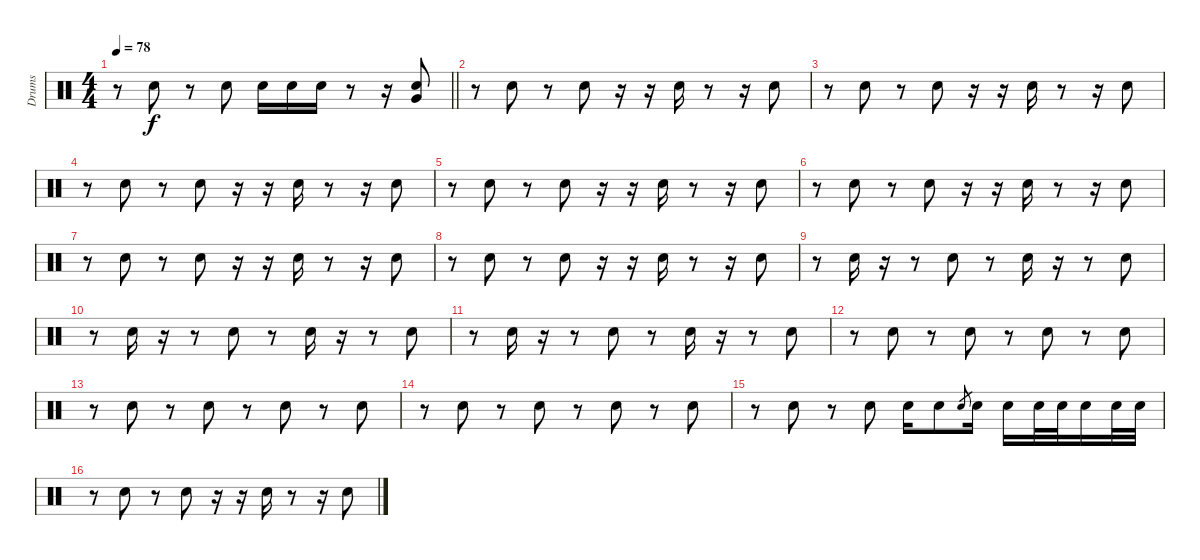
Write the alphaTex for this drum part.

\track ("Drums" "Drums") {instrument percussion}
\staff {score}
\articulation defaults
\ts (4 4)
\tempo 78
\clef neutral
\barLineRight lightlight
\ks c
r.8{dy f} "Snare (hit) 2".8 r.8 "Snare (hit) 2".8 "Snare (hit) 2".16 "Snare (hit) 2".16 "Snare (hit) 2".16 r.8 r.16 ("Very Low Tom (hit)" "Snare (hit) 2").8 |
r.8 "Snare (hit) 2".8 r.8 "Snare (hit) 2".8 r.16 r.16 "Snare (hit) 2".16 r.8 r.16 "Snare (hit) 2".8 |
r.8 "Snare (hit) 2".8 r.8 "Snare (hit) 2".8 r.16 r.16 "Snare (hit) 2".16 r.8 r.16 "Snare (hit) 2".8 |
r.8 "Snare (hit) 2".8 r.8 "Snare (hit) 2".8 r.16 r.16 "Snare (hit) 2".16 r.8 r.16 "Snare (hit) 2".8 |
r.8 "Snare (hit) 2".8 r.8 "Snare (hit) 2".8 r.16 r.16 "Snare (hit) 2".16 r.8 r.16 "Snare (hit) 2".8 |
r.8 "Snare (hit) 2".8 r.8 "Snare (hit) 2".8 r.16 r.16 "Snare (hit) 2".16 r.8 r.16 "Snare (hit) 2".8 |
r.8 "Snare (hit) 2".8 r.8 "Snare (hit) 2".8 r.16 r.16 "Snare (hit) 2".16 r.8 r.16 "Snare (hit) 2".8 |
r.8 "Snare (hit) 2".8 r.8 "Snare (hit) 2".8 r.16 r.16 "Snare (hit) 2".16 r.8 r.16 "Snare (hit) 2".8 |
r.8 "Snare (hit) 2".16 r.16 r.8 "Snare (hit) 2".8 r.8 "Snare (hit) 2".16 r.16 r.8 "Snare (hit) 2".8 |
r.8 "Snare (hit) 2".16 r.16 r.8 "Snare (hit) 2".8 r.8 "Snare (hit) 2".16 r.16 r.8 "Snare (hit) 2".8 |
r.8 "Snare (hit) 2".16 r.16 r.8 "Snare (hit) 2".8 r.8 "Snare (hit) 2".16 r.16 r.8 "Snare (hit) 2".8 |
r.8 "Snare (hit) 2".8 r.8 "Snare (hit) 2".8 r.8 "Snare (hit) 2".8 r.8 "Snare (hit) 2".8 |
r.8 "Snare (hit) 2".8 r.8 "Snare (hit) 2".8 r.8 "Snare (hit) 2".8 r.8 "Snare (hit) 2".8 |
r.8 "Snare (hit) 2".8 r.8 "Snare (hit) 2".8 r.8 "Snare (hit) 2".8 r.8 "Snare (hit) 2".8 |
r.8 "Snare (hit) 2".8 r.8 "Snare (hit) 2".8 "Snare (hit) 2".16 "Snare (hit) 2".8 "Snare (hit) 2".8{gr} "Snare (hit) 2".16 "Snare (hit) 2".16 "Snare (hit) 2".32 "Snare (hit) 2".32 "Snare (hit) 2".16 "Snare (hit) 2".32 "Snare (hit) 2".32 |
r.8 "Snare (hit) 2".8 r.8 "Snare (hit) 2".8 r.16 r.16 "Snare (hit) 2".16 r.8 r.16 "Snare (hit) 2".8
